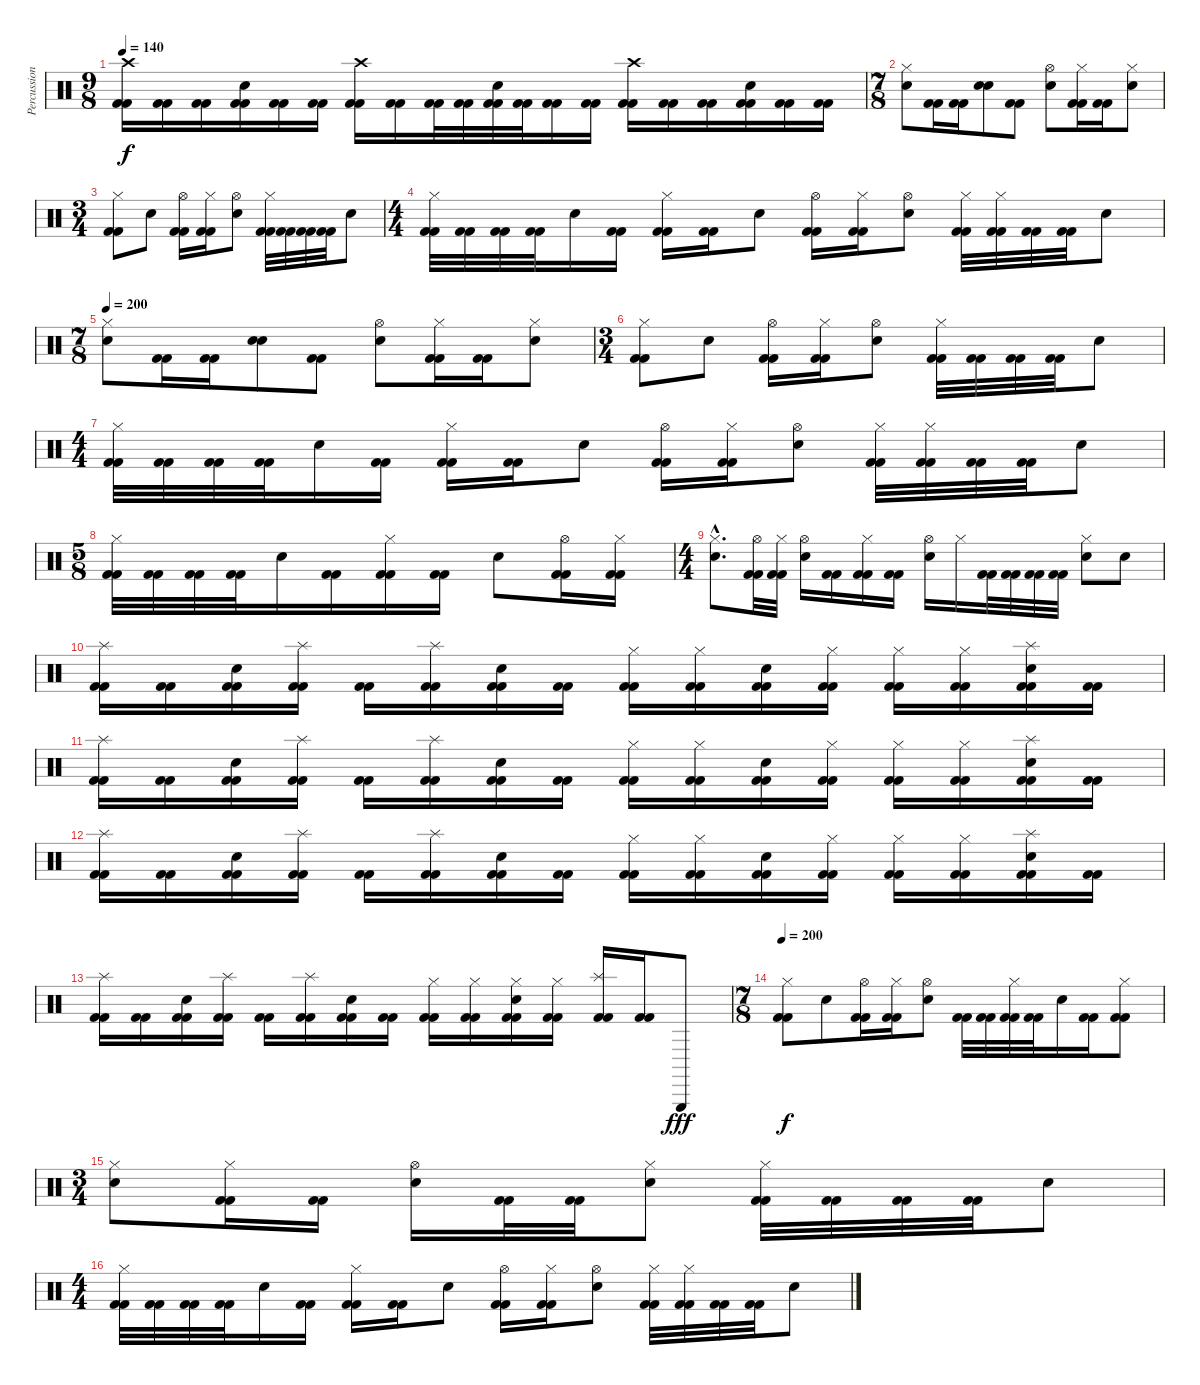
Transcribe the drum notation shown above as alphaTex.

\track ("Percussions" "Percussion") {instrument percussion}
\staff {score}
\articulation defaults
\ts (9 8)
\tempo 140
\clef neutral
\ks c
("Kick (hit) 2" "Kick (hit) 2" "Crash high (hit)").16{dy f} ("Kick (hit) 2" "Kick (hit) 2").16 ("Kick (hit) 2" "Kick (hit) 2").16 ("Kick (hit) 2" "Kick (hit) 2" "Electric Snare (hit)").16 ("Kick (hit) 2" "Kick (hit) 2").16 ("Kick (hit) 2" "Kick (hit) 2").16 ("Kick (hit) 2" "Kick (hit) 2" "Crash high (hit)").16 ("Kick (hit) 2" "Kick (hit) 2").16 ("Kick (hit) 2" "Kick (hit) 2").32 ("Kick (hit) 2" "Kick (hit) 2").32 ("Kick (hit) 2" "Kick (hit) 2" "Electric Snare (hit)").32 ("Kick (hit) 2" "Kick (hit) 2").32 ("Kick (hit) 2" "Kick (hit) 2").16 ("Kick (hit) 2" "Kick (hit) 2").16 ("Kick (hit) 2" "Kick (hit) 2" "Crash high (hit)").16 ("Kick (hit) 2" "Kick (hit) 2").16 ("Kick (hit) 2" "Kick (hit) 2").16 ("Kick (hit) 2" "Kick (hit) 2" "Electric Snare (hit)").16 ("Kick (hit) 2" "Kick (hit) 2").16 ("Kick (hit) 2" "Kick (hit) 2").16 |
\ts (7 8)
("Electric Snare (hit)" "Hi-Hat (closed)").8 ("Kick (hit) 2" "Kick (hit) 2").16 ("Kick (hit) 2" "Kick (hit) 2").16 ("Electric Snare (hit)" "Electric Snare (hit)").8 ("Kick (hit) 2" "Kick (hit) 2").8 ("Electric Snare (hit)" "Hi-Hat (open)").8 ("Kick (hit) 2" "Kick (hit) 2" "Hi-Hat (closed)").16 ("Kick (hit) 2" "Kick (hit) 2").16 ("Electric Snare (hit)" "Hi-Hat (closed)").8 |
\ts (3 4)
("Kick (hit) 2" "Kick (hit) 2" "Hi-Hat (closed)").8 "Electric Snare (hit)".8 ("Kick (hit) 2" "Kick (hit) 2" "Hi-Hat (open)").16 ("Kick (hit) 2" "Kick (hit) 2" "Hi-Hat (closed)").16 ("Electric Snare (hit)" "Hi-Hat (open)").8 ("Kick (hit) 2" "Kick (hit) 2" "Hi-Hat (closed)").32 ("Kick (hit) 2" "Kick (hit) 2").32 ("Kick (hit) 2" "Kick (hit) 2").32 ("Kick (hit) 2" "Kick (hit) 2").32 "Electric Snare (hit)".8 |
\ts (4 4)
("Kick (hit) 2" "Kick (hit) 2" "Hi-Hat (closed)").32 ("Kick (hit) 2" "Kick (hit) 2").32 ("Kick (hit) 2" "Kick (hit) 2").32 ("Kick (hit) 2" "Kick (hit) 2").32 "Electric Snare (hit)".16 ("Kick (hit) 2" "Kick (hit) 2").16 ("Kick (hit) 2" "Kick (hit) 2" "Hi-Hat (closed)").16 ("Kick (hit) 2" "Kick (hit) 2").16 "Electric Snare (hit)".8 ("Kick (hit) 2" "Kick (hit) 2" "Hi-Hat (open)").16 ("Kick (hit) 2" "Kick (hit) 2" "Hi-Hat (closed)").16 ("Electric Snare (hit)" "Hi-Hat (open)").8 ("Kick (hit) 2" "Kick (hit) 2" "Hi-Hat (closed)").32 ("Kick (hit) 2" "Kick (hit) 2" "Hi-Hat (closed)").32 ("Kick (hit) 2" "Kick (hit) 2").32 ("Kick (hit) 2" "Kick (hit) 2").32 "Electric Snare (hit)".8 |
\ts (7 8)
\tempo 200
("Electric Snare (hit)" "Hi-Hat (closed)").8 ("Kick (hit) 2" "Kick (hit) 2").16 ("Kick (hit) 2" "Kick (hit) 2").16 ("Electric Snare (hit)" "Electric Snare (hit)").8 ("Kick (hit) 2" "Kick (hit) 2").8 ("Electric Snare (hit)" "Hi-Hat (open)").8 ("Kick (hit) 2" "Kick (hit) 2" "Hi-Hat (closed)").16 ("Kick (hit) 2" "Kick (hit) 2").16 ("Electric Snare (hit)" "Hi-Hat (closed)").8 |
\ts (3 4)
("Kick (hit) 2" "Kick (hit) 2" "Hi-Hat (closed)").8 "Electric Snare (hit)".8 ("Kick (hit) 2" "Kick (hit) 2" "Hi-Hat (open)").16 ("Kick (hit) 2" "Kick (hit) 2" "Hi-Hat (closed)").16 ("Electric Snare (hit)" "Hi-Hat (open)").8 ("Kick (hit) 2" "Kick (hit) 2" "Hi-Hat (closed)").32 ("Kick (hit) 2" "Kick (hit) 2").32 ("Kick (hit) 2" "Kick (hit) 2").32 ("Kick (hit) 2" "Kick (hit) 2").32 "Electric Snare (hit)".8 |
\ts (4 4)
("Kick (hit) 2" "Kick (hit) 2" "Hi-Hat (closed)").32 ("Kick (hit) 2" "Kick (hit) 2").32 ("Kick (hit) 2" "Kick (hit) 2").32 ("Kick (hit) 2" "Kick (hit) 2").32 "Electric Snare (hit)".16 ("Kick (hit) 2" "Kick (hit) 2").16 ("Kick (hit) 2" "Kick (hit) 2" "Hi-Hat (closed)").16 ("Kick (hit) 2" "Kick (hit) 2").16 "Electric Snare (hit)".8 ("Kick (hit) 2" "Kick (hit) 2" "Hi-Hat (open)").16 ("Kick (hit) 2" "Kick (hit) 2" "Hi-Hat (closed)").16 ("Electric Snare (hit)" "Hi-Hat (open)").8 ("Kick (hit) 2" "Kick (hit) 2" "Hi-Hat (closed)").32 ("Kick (hit) 2" "Kick (hit) 2" "Hi-Hat (closed)").32 ("Kick (hit) 2" "Kick (hit) 2").32 ("Kick (hit) 2" "Kick (hit) 2").32 "Electric Snare (hit)".8 |
\ts (5 8)
("Kick (hit) 2" "Kick (hit) 2" "Hi-Hat (closed)").32 ("Kick (hit) 2" "Kick (hit) 2").32 ("Kick (hit) 2" "Kick (hit) 2").32 ("Kick (hit) 2" "Kick (hit) 2").32 "Electric Snare (hit)".16 ("Kick (hit) 2" "Kick (hit) 2").16 ("Kick (hit) 2" "Kick (hit) 2" "Hi-Hat (closed)").16 ("Kick (hit) 2" "Kick (hit) 2").16 "Electric Snare (hit)".8 ("Kick (hit) 2" "Kick (hit) 2" "Hi-Hat (open)").16 ("Kick (hit) 2" "Kick (hit) 2" "Hi-Hat (closed)").16 |
\ts (4 4)
("Electric Snare (hit)"{hac} "Hi-Hat (closed)"{hac}).8{d} ("Kick (hit) 2" "Kick (hit) 2" "Hi-Hat (open)").32 ("Kick (hit) 2" "Kick (hit) 2" "Hi-Hat (closed)").32 ("Electric Snare (hit)" "Hi-Hat (open)").16 ("Kick (hit) 2" "Kick (hit) 2").16 ("Kick (hit) 2" "Kick (hit) 2" "Hi-Hat (closed)").16 ("Kick (hit) 2" "Kick (hit) 2").16 ("Electric Snare (hit)" "Hi-Hat (open)").16 "Hi-Hat (closed)".16 ("Kick (hit) 2" "Kick (hit) 2").32 ("Kick (hit) 2" "Kick (hit) 2").32 ("Kick (hit) 2" "Kick (hit) 2").32 ("Kick (hit) 2" "Kick (hit) 2").32 ("Electric Snare (hit)" "Hi-Hat (closed)").8 "Electric Snare (hit)".8 |
("Kick (hit) 2" "Kick (hit) 2" "Splash (hit)").16 ("Kick (hit) 2" "Kick (hit) 2").16 ("Kick (hit) 2" "Kick (hit) 2" "Electric Snare (hit)").16 ("Kick (hit) 2" "Kick (hit) 2" "Splash (hit)").16 ("Kick (hit) 2" "Kick (hit) 2").16 ("Kick (hit) 2" "Kick (hit) 2" "Splash (hit)").16 ("Kick (hit) 2" "Kick (hit) 2" "Electric Snare (hit)").16 ("Kick (hit) 2" "Kick (hit) 2").16 ("Kick (hit) 2" "Kick (hit) 2" "Hi-Hat (closed)").16 ("Kick (hit) 2" "Kick (hit) 2" "Hi-Hat (closed)").16 ("Kick (hit) 2" "Kick (hit) 2" "Electric Snare (hit)").16 ("Kick (hit) 2" "Kick (hit) 2" "Hi-Hat (closed)").16 ("Kick (hit) 2" "Kick (hit) 2" "Hi-Hat (closed)").16 ("Kick (hit) 2" "Kick (hit) 2" "Hi-Hat (closed)").16 ("Kick (hit) 2" "Kick (hit) 2" "Electric Snare (hit)" "Splash (hit)").16 ("Kick (hit) 2" "Kick (hit) 2").16 |
("Kick (hit) 2" "Kick (hit) 2" "Splash (hit)").16 ("Kick (hit) 2" "Kick (hit) 2").16 ("Kick (hit) 2" "Kick (hit) 2" "Electric Snare (hit)").16 ("Kick (hit) 2" "Kick (hit) 2" "Splash (hit)").16 ("Kick (hit) 2" "Kick (hit) 2").16 ("Kick (hit) 2" "Kick (hit) 2" "Splash (hit)").16 ("Kick (hit) 2" "Kick (hit) 2" "Electric Snare (hit)").16 ("Kick (hit) 2" "Kick (hit) 2").16 ("Kick (hit) 2" "Kick (hit) 2" "Hi-Hat (closed)").16 ("Kick (hit) 2" "Kick (hit) 2" "Hi-Hat (closed)").16 ("Kick (hit) 2" "Kick (hit) 2" "Electric Snare (hit)").16 ("Kick (hit) 2" "Kick (hit) 2" "Hi-Hat (closed)").16 ("Kick (hit) 2" "Kick (hit) 2" "Hi-Hat (closed)").16 ("Kick (hit) 2" "Kick (hit) 2" "Hi-Hat (closed)").16 ("Kick (hit) 2" "Kick (hit) 2" "Electric Snare (hit)" "Splash (hit)").16 ("Kick (hit) 2" "Kick (hit) 2").16 |
("Kick (hit) 2" "Kick (hit) 2" "Splash (hit)").16 ("Kick (hit) 2" "Kick (hit) 2").16 ("Kick (hit) 2" "Kick (hit) 2" "Electric Snare (hit)").16 ("Kick (hit) 2" "Kick (hit) 2" "Splash (hit)").16 ("Kick (hit) 2" "Kick (hit) 2").16 ("Kick (hit) 2" "Kick (hit) 2" "Splash (hit)").16 ("Kick (hit) 2" "Kick (hit) 2" "Electric Snare (hit)").16 ("Kick (hit) 2" "Kick (hit) 2").16 ("Kick (hit) 2" "Kick (hit) 2" "Hi-Hat (closed)").16 ("Kick (hit) 2" "Kick (hit) 2" "Hi-Hat (closed)").16 ("Kick (hit) 2" "Kick (hit) 2" "Electric Snare (hit)").16 ("Kick (hit) 2" "Kick (hit) 2" "Hi-Hat (closed)").16 ("Kick (hit) 2" "Kick (hit) 2" "Hi-Hat (closed)").16 ("Kick (hit) 2" "Kick (hit) 2" "Hi-Hat (closed)").16 ("Kick (hit) 2" "Kick (hit) 2" "Electric Snare (hit)" "Splash (hit)").16 ("Kick (hit) 2" "Kick (hit) 2").16 |
("Kick (hit) 2" "Kick (hit) 2" "Splash (hit)").16 ("Kick (hit) 2" "Kick (hit) 2").16 ("Kick (hit) 2" "Kick (hit) 2" "Electric Snare (hit)").16 ("Kick (hit) 2" "Kick (hit) 2" "Splash (hit)").16 ("Kick (hit) 2" "Kick (hit) 2").16 ("Kick (hit) 2" "Kick (hit) 2" "Splash (hit)").16 ("Kick (hit) 2" "Kick (hit) 2" "Electric Snare (hit)").16 ("Kick (hit) 2" "Kick (hit) 2").16 ("Kick (hit) 2" "Kick (hit) 2" "Hi-Hat (closed)").16 ("Kick (hit) 2" "Kick (hit) 2" "Hi-Hat (closed)").16 ("Kick (hit) 2" "Kick (hit) 2" "Electric Snare (hit)" "Hi-Hat (closed)").16 ("Kick (hit) 2" "Kick (hit) 2" "Hi-Hat (closed)").16 ("Kick (hit) 2" "Kick (hit) 2" "Splash (hit)").16 ("Kick (hit) 2" "Kick (hit) 2").16 "Triangle (hit)".8{dy fff} |
\ts (7 8)
\tempo 200
("Kick (hit) 2" "Kick (hit) 2" "Hi-Hat (closed)").8{dy f} "Electric Snare (hit)".8 ("Kick (hit) 2" "Kick (hit) 2" "Hi-Hat (open)").16 ("Kick (hit) 2" "Kick (hit) 2" "Hi-Hat (closed)").16 ("Electric Snare (hit)" "Hi-Hat (open)").8 ("Kick (hit) 2" "Kick (hit) 2").32 ("Kick (hit) 2" "Kick (hit) 2").32 ("Kick (hit) 2" "Kick (hit) 2" "Hi-Hat (closed)").32 ("Kick (hit) 2" "Kick (hit) 2").32 "Electric Snare (hit)".16 ("Kick (hit) 2" "Kick (hit) 2").16 ("Kick (hit) 2" "Kick (hit) 2" "Hi-Hat (closed)").8 |
\ts (3 4)
("Electric Snare (hit)" "Hi-Hat (closed)").8 ("Kick (hit) 2" "Kick (hit) 2" "Hi-Hat (closed)").16 ("Kick (hit) 2" "Kick (hit) 2").16 ("Electric Snare (hit)" "Hi-Hat (open)").16 ("Kick (hit) 2" "Kick (hit) 2").32 ("Kick (hit) 2" "Kick (hit) 2").32 ("Electric Snare (hit)" "Hi-Hat (closed)").8 ("Kick (hit) 2" "Kick (hit) 2" "Hi-Hat (closed)").32 ("Kick (hit) 2" "Kick (hit) 2").32 ("Kick (hit) 2" "Kick (hit) 2").32 ("Kick (hit) 2" "Kick (hit) 2").32 "Electric Snare (hit)".8 |
\ts (4 4)
("Kick (hit) 2" "Kick (hit) 2" "Hi-Hat (closed)").32 ("Kick (hit) 2" "Kick (hit) 2").32 ("Kick (hit) 2" "Kick (hit) 2").32 ("Kick (hit) 2" "Kick (hit) 2").32 "Electric Snare (hit)".16 ("Kick (hit) 2" "Kick (hit) 2").16 ("Kick (hit) 2" "Kick (hit) 2" "Hi-Hat (closed)").16 ("Kick (hit) 2" "Kick (hit) 2").16 "Electric Snare (hit)".8 ("Kick (hit) 2" "Kick (hit) 2" "Hi-Hat (open)").16 ("Kick (hit) 2" "Kick (hit) 2" "Hi-Hat (closed)").16 ("Electric Snare (hit)" "Hi-Hat (open)").8 ("Kick (hit) 2" "Kick (hit) 2" "Hi-Hat (closed)").32 ("Kick (hit) 2" "Kick (hit) 2" "Hi-Hat (closed)").32 ("Kick (hit) 2" "Kick (hit) 2").32 ("Kick (hit) 2" "Kick (hit) 2").32 "Electric Snare (hit)".8
